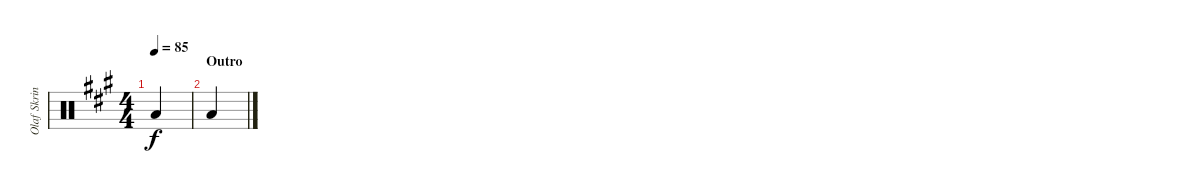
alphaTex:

\track ("Olaf Skrinde (Drums)" "Olaf Skrin") {instrument percussion}
\staff {score}
\articulation defaults
\ts (4 4)
\tempo 85
\clef neutral
\ks a "Low Floor Tom (hit)".4{dy f}
|
\section ("" "Outro")
"Low Floor Tom (hit)".4
